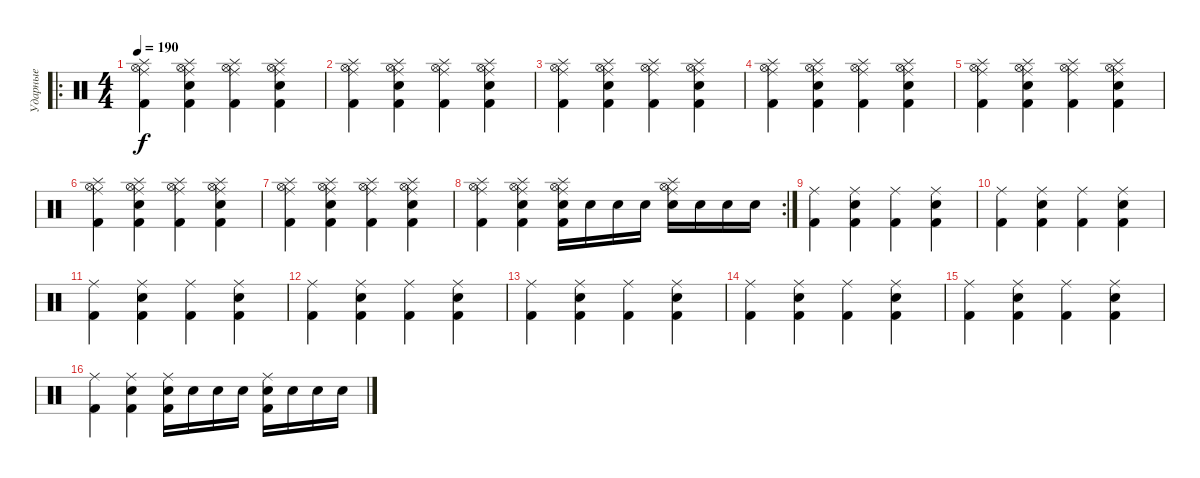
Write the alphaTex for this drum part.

\track ("Ударные" "Ударные") {instrument percussion}
\staff {score}
\articulation defaults
\ro
\ts (4 4)
\tempo 190
\clef neutral
\ks c
("Hi-Hat (open)" "Ride (middle)" "Kick (hit) 2" "Splash (hit)").4{dy f} ("Hi-Hat (open)" "Ride (middle)" "Electric Snare (hit)" "Kick (hit) 2" "Splash (hit)").4 ("Hi-Hat (open)" "Ride (middle)" "Kick (hit) 2" "Splash (hit)").4 ("Hi-Hat (open)" "Ride (middle)" "Electric Snare (hit)" "Kick (hit) 2" "Splash (hit)").4 |
("Hi-Hat (open)" "Ride (middle)" "Kick (hit) 2" "Splash (hit)").4 ("Hi-Hat (open)" "Ride (middle)" "Electric Snare (hit)" "Kick (hit) 2" "Splash (hit)").4 ("Hi-Hat (open)" "Ride (middle)" "Kick (hit) 2" "Splash (hit)").4 ("Hi-Hat (open)" "Ride (middle)" "Electric Snare (hit)" "Kick (hit) 2" "Splash (hit)").4 |
("Hi-Hat (open)" "Ride (middle)" "Kick (hit) 2" "Splash (hit)").4 ("Hi-Hat (open)" "Ride (middle)" "Electric Snare (hit)" "Kick (hit) 2" "Splash (hit)").4 ("Hi-Hat (open)" "Ride (middle)" "Kick (hit) 2" "Splash (hit)").4 ("Hi-Hat (open)" "Ride (middle)" "Electric Snare (hit)" "Kick (hit) 2" "Splash (hit)").4 |
("Hi-Hat (open)" "Ride (middle)" "Kick (hit) 2" "Splash (hit)").4 ("Hi-Hat (open)" "Ride (middle)" "Electric Snare (hit)" "Kick (hit) 2" "Splash (hit)").4 ("Hi-Hat (open)" "Ride (middle)" "Kick (hit) 2" "Splash (hit)").4 ("Hi-Hat (open)" "Ride (middle)" "Electric Snare (hit)" "Kick (hit) 2" "Splash (hit)").4 |
("Hi-Hat (open)" "Ride (middle)" "Kick (hit) 2" "Splash (hit)").4 ("Hi-Hat (open)" "Ride (middle)" "Electric Snare (hit)" "Kick (hit) 2" "Splash (hit)").4 ("Hi-Hat (open)" "Ride (middle)" "Kick (hit) 2" "Splash (hit)").4 ("Hi-Hat (open)" "Ride (middle)" "Electric Snare (hit)" "Kick (hit) 2" "Splash (hit)").4 |
("Hi-Hat (open)" "Ride (middle)" "Kick (hit) 2" "Splash (hit)").4 ("Hi-Hat (open)" "Ride (middle)" "Electric Snare (hit)" "Kick (hit) 2" "Splash (hit)").4 ("Hi-Hat (open)" "Ride (middle)" "Kick (hit) 2" "Splash (hit)").4 ("Hi-Hat (open)" "Ride (middle)" "Electric Snare (hit)" "Kick (hit) 2" "Splash (hit)").4 |
("Hi-Hat (open)" "Ride (middle)" "Kick (hit) 2" "Splash (hit)").4 ("Hi-Hat (open)" "Ride (middle)" "Electric Snare (hit)" "Kick (hit) 2" "Splash (hit)").4 ("Hi-Hat (open)" "Ride (middle)" "Kick (hit) 2" "Splash (hit)").4 ("Hi-Hat (open)" "Ride (middle)" "Electric Snare (hit)" "Kick (hit) 2" "Splash (hit)").4 |
\rc 2
("Hi-Hat (open)" "Ride (middle)" "Kick (hit) 2" "Splash (hit)").4 ("Hi-Hat (open)" "Ride (middle)" "Electric Snare (hit)" "Kick (hit) 2" "Splash (hit)").4 ("Hi-Hat (open)" "Ride (middle)" "Electric Snare (hit)" "Kick (hit) 2" "Splash (hit)").16 "Electric Snare (hit)".16 "Electric Snare (hit)".16 "Electric Snare (hit)".16 ("Hi-Hat (open)" "Ride (middle)" "Electric Snare (hit)" "Splash (hit)").16 "Electric Snare (hit)".16 "Electric Snare (hit)".16 "Electric Snare (hit)".16 |
("Ride (middle)" "Kick (hit) 2").4 ("Ride (middle)" "Electric Snare (hit)" "Kick (hit) 2").4 ("Ride (middle)" "Kick (hit) 2").4 ("Ride (middle)" "Electric Snare (hit)" "Kick (hit) 2").4 |
("Ride (middle)" "Kick (hit) 2").4 ("Ride (middle)" "Electric Snare (hit)" "Kick (hit) 2").4 ("Ride (middle)" "Kick (hit) 2").4 ("Ride (middle)" "Electric Snare (hit)" "Kick (hit) 2").4 |
("Ride (middle)" "Kick (hit) 2").4 ("Ride (middle)" "Electric Snare (hit)" "Kick (hit) 2").4 ("Ride (middle)" "Kick (hit) 2").4 ("Ride (middle)" "Electric Snare (hit)" "Kick (hit) 2").4 |
("Ride (middle)" "Kick (hit) 2").4 ("Ride (middle)" "Electric Snare (hit)" "Kick (hit) 2").4 ("Ride (middle)" "Kick (hit) 2").4 ("Ride (middle)" "Electric Snare (hit)" "Kick (hit) 2").4 |
("Ride (middle)" "Kick (hit) 2").4 ("Ride (middle)" "Electric Snare (hit)" "Kick (hit) 2").4 ("Ride (middle)" "Kick (hit) 2").4 ("Ride (middle)" "Electric Snare (hit)" "Kick (hit) 2").4 |
("Ride (middle)" "Kick (hit) 2").4 ("Ride (middle)" "Electric Snare (hit)" "Kick (hit) 2").4 ("Ride (middle)" "Kick (hit) 2").4 ("Ride (middle)" "Electric Snare (hit)" "Kick (hit) 2").4 |
("Ride (middle)" "Kick (hit) 2").4 ("Ride (middle)" "Electric Snare (hit)" "Kick (hit) 2").4 ("Ride (middle)" "Kick (hit) 2").4 ("Ride (middle)" "Electric Snare (hit)" "Kick (hit) 2").4 |
("Ride (middle)" "Kick (hit) 2").4 ("Ride (middle)" "Electric Snare (hit)" "Kick (hit) 2").4 ("Ride (middle)" "Electric Snare (hit)" "Kick (hit) 2").16 "Electric Snare (hit)".16 "Electric Snare (hit)".16 "Electric Snare (hit)".16 ("Ride (middle)" "Electric Snare (hit)" "Kick (hit) 2").16 "Electric Snare (hit)".16 "Electric Snare (hit)".16 "Electric Snare (hit)".16
